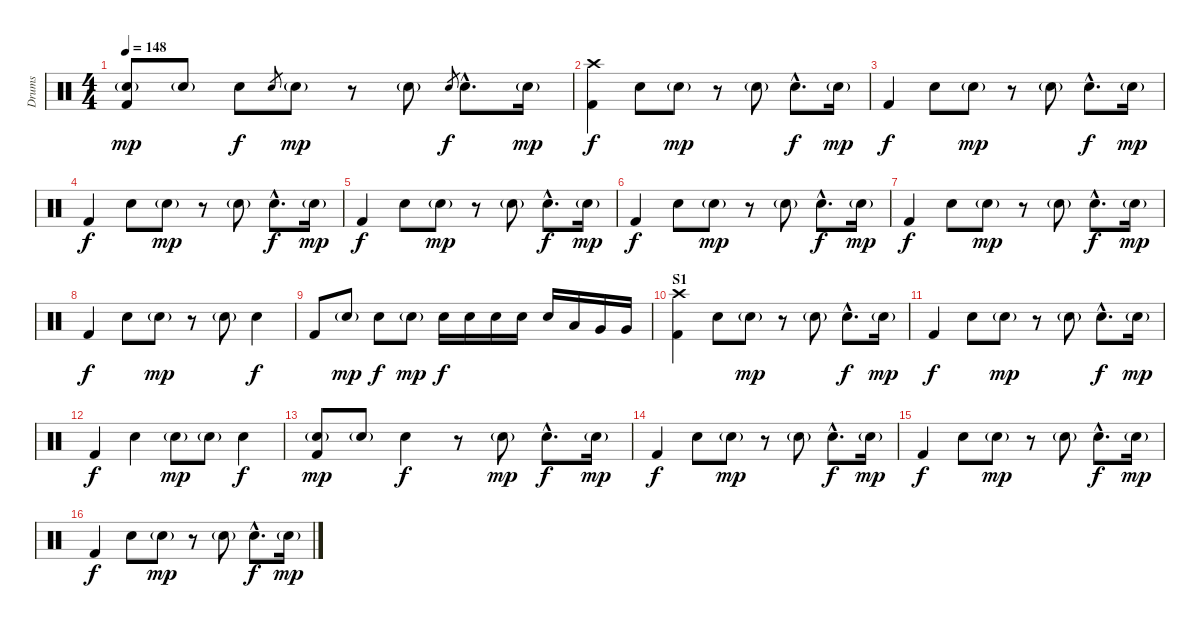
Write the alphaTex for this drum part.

\track ("Drums" "Drums") {instrument percussion}
\staff {score}
\articulation defaults
\ts (4 4)
\tempo 148
\clef neutral
\ks c
("Electric Snare (hit)"{g} "Kick (hit) 2").8{dy mp} "Electric Snare (hit)"{g}.8 "Electric Snare (hit)".8{dy f} "Electric Snare (hit)".8{gr} "Electric Snare (hit)"{g}.8{dy mp} r.8 "Electric Snare (hit)"{g}.8 "Electric Snare (hit)".8{gr dy f} "Electric Snare (hit)"{hac}.8{d} "Electric Snare (hit)"{g}.16{dy mp} |
("Crash high (hit)" "Kick (hit) 2").4{dy f} "Electric Snare (hit)".8 "Electric Snare (hit)"{g}.8{dy mp} r.8 "Electric Snare (hit)"{g}.8 "Electric Snare (hit)"{hac}.8{d dy f} "Electric Snare (hit)"{g}.16{dy mp} |
"Kick (hit) 2".4{dy f} "Electric Snare (hit)".8 "Electric Snare (hit)"{g}.8{dy mp} r.8 "Electric Snare (hit)"{g}.8 "Electric Snare (hit)"{hac}.8{d dy f} "Electric Snare (hit)"{g}.16{dy mp} |
"Kick (hit) 2".4{dy f} "Electric Snare (hit)".8 "Electric Snare (hit)"{g}.8{dy mp} r.8 "Electric Snare (hit)"{g}.8 "Electric Snare (hit)"{hac}.8{d dy f} "Electric Snare (hit)"{g}.16{dy mp} |
"Kick (hit) 2".4{dy f} "Electric Snare (hit)".8 "Electric Snare (hit)"{g}.8{dy mp} r.8 "Electric Snare (hit)"{g}.8 "Electric Snare (hit)"{hac}.8{d dy f} "Electric Snare (hit)"{g}.16{dy mp} |
"Kick (hit) 2".4{dy f} "Electric Snare (hit)".8 "Electric Snare (hit)"{g}.8{dy mp} r.8 "Electric Snare (hit)"{g}.8 "Electric Snare (hit)"{hac}.8{d dy f} "Electric Snare (hit)"{g}.16{dy mp} |
"Kick (hit) 2".4{dy f} "Electric Snare (hit)".8 "Electric Snare (hit)"{g}.8{dy mp} r.8 "Electric Snare (hit)"{g}.8 "Electric Snare (hit)"{hac}.8{d dy f} "Electric Snare (hit)"{g}.16{dy mp} |
"Kick (hit) 2".4{dy f} "Electric Snare (hit)".8 "Electric Snare (hit)"{g}.8{dy mp} r.8 "Electric Snare (hit)"{g}.8 "Electric Snare (hit)".4{dy f} |
"Kick (hit) 2".8 "Electric Snare (hit)"{g}.8{dy mp} "Electric Snare (hit)".8{dy f} "Electric Snare (hit)"{g}.8{dy mp} "Electric Snare (hit)".16{dy f} "Electric Snare (hit)".16 "Electric Snare (hit)".16 "Electric Snare (hit)".16 "Electric Snare (hit)".16 "Low Tom (hit)".16 "Very Low Tom (hit)".16 "Very Low Tom (hit)".16 |
\section ("" "S1")
("Crash high (hit)" "Kick (hit) 2").4 "Electric Snare (hit)".8 "Electric Snare (hit)"{g}.8{dy mp} r.8 "Electric Snare (hit)"{g}.8 "Electric Snare (hit)"{hac}.8{d dy f} "Electric Snare (hit)"{g}.16{dy mp} |
"Kick (hit) 2".4{dy f} "Electric Snare (hit)".8 "Electric Snare (hit)"{g}.8{dy mp} r.8 "Electric Snare (hit)"{g}.8 "Electric Snare (hit)"{hac}.8{d dy f} "Electric Snare (hit)"{g}.16{dy mp} |
"Kick (hit) 2".4{dy f} "Electric Snare (hit)".4 "Electric Snare (hit)"{g}.8{dy mp} "Electric Snare (hit)"{g}.8 "Electric Snare (hit)".4{dy f} |
("Electric Snare (hit)"{g} "Kick (hit) 2").8{dy mp} "Electric Snare (hit)"{g}.8 "Electric Snare (hit)".4{dy f} r.8 "Electric Snare (hit)"{g}.8{dy mp} "Electric Snare (hit)"{hac}.8{d dy f} "Electric Snare (hit)"{g}.16{dy mp} |
"Kick (hit) 2".4{dy f} "Electric Snare (hit)".8 "Electric Snare (hit)"{g}.8{dy mp} r.8 "Electric Snare (hit)"{g}.8 "Electric Snare (hit)"{hac}.8{d dy f} "Electric Snare (hit)"{g}.16{dy mp} |
"Kick (hit) 2".4{dy f} "Electric Snare (hit)".8 "Electric Snare (hit)"{g}.8{dy mp} r.8 "Electric Snare (hit)"{g}.8 "Electric Snare (hit)"{hac}.8{d dy f} "Electric Snare (hit)"{g}.16{dy mp} |
"Kick (hit) 2".4{dy f} "Electric Snare (hit)".8 "Electric Snare (hit)"{g}.8{dy mp} r.8 "Electric Snare (hit)"{g}.8 "Electric Snare (hit)"{hac}.8{d dy f} "Electric Snare (hit)"{g}.16{dy mp}
